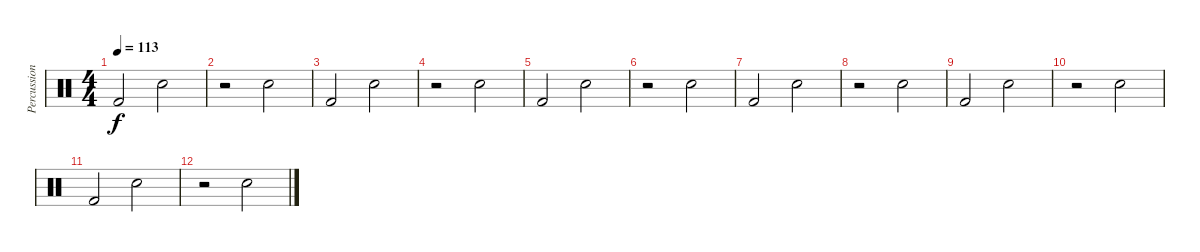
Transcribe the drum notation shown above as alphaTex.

\track ("Percussion" "Percussion") {instrument percussion}
\staff {score}
\articulation defaults
\ts (4 4)
\tempo 113
\clef neutral
\ks c "Kick (hit) 2".2{dy f} "Electric Snare (hit)".2
|
r.2 "Electric Snare (hit)".2 |
"Kick (hit) 2".2 "Electric Snare (hit)".2 |
r.2 "Electric Snare (hit)".2 |
"Kick (hit) 2".2 "Electric Snare (hit)".2 |
r.2 "Electric Snare (hit)".2 |
"Kick (hit) 2".2 "Electric Snare (hit)".2 |
r.2 "Electric Snare (hit)".2 |
"Kick (hit) 2".2 "Electric Snare (hit)".2 |
r.2 "Electric Snare (hit)".2 |
"Kick (hit) 2".2 "Electric Snare (hit)".2 |
r.2 "Electric Snare (hit)".2
